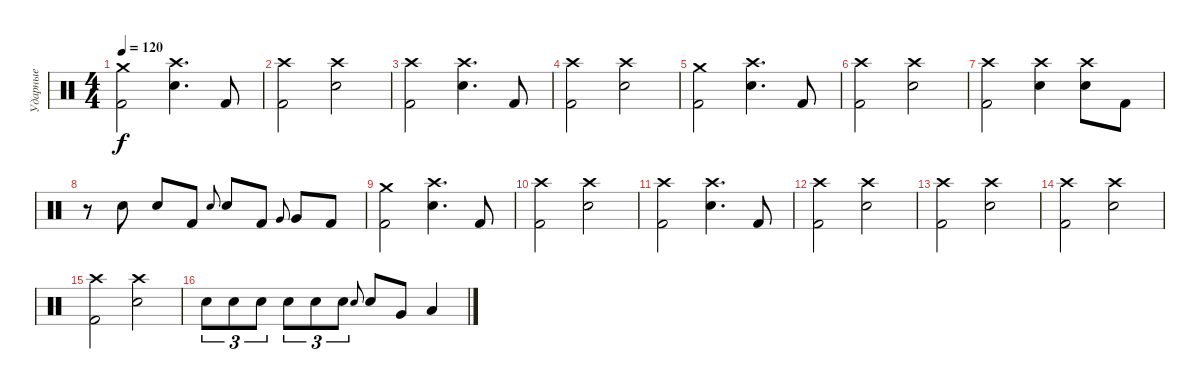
\track ("Ударные" "Ударные") {instrument percussion}
\staff {score}
\articulation defaults
\ts (4 4)
\tempo 120
\clef neutral
\ks c
("Crash medium (hit)" "Kick (hit) 2").2{dy f} ("Crash high (hit)" "Snare (hit) 2").4{d} "Kick (hit) 2".8 |
("Crash high (hit)" "Kick (hit) 2").2 ("Crash high (hit)" "Snare (hit) 2").2 |
("Crash high (hit)" "Kick (hit) 2").2 ("Crash high (hit)" "Snare (hit) 2").4{d} "Kick (hit) 2".8 |
("Crash high (hit)" "Kick (hit) 2").2 ("Crash high (hit)" "Snare (hit) 2").2 |
("Crash medium (hit)" "Kick (hit) 2").2 ("Crash high (hit)" "Snare (hit) 2").4{d} "Kick (hit) 2".8 |
("Crash high (hit)" "Kick (hit) 2").2 ("Crash high (hit)" "Snare (hit) 2").2 |
("Crash high (hit)" "Kick (hit) 2").2 ("Crash high (hit)" "Snare (hit) 2").4 ("Crash high (hit)" "Snare (hit) 2").8 "Kick (hit) 2".8 |
r.8 "Snare (hit) 2".8 "Snare (hit) 2".8 "Kick (hit) 2".8 "Snare (hit) 2".8{gr onbeat} "Snare (hit) 2".8 "Kick (hit) 2".8 "Very Low Tom (hit)".8{gr onbeat} "Very Low Tom (hit)".8 "Kick (hit) 2".8 |
("Crash medium (hit)" "Kick (hit) 2").2 ("Crash high (hit)" "Snare (hit) 2").4{d} "Kick (hit) 2".8 |
("Crash high (hit)" "Kick (hit) 2").2 ("Crash high (hit)" "Snare (hit) 2").2 |
("Crash high (hit)" "Kick (hit) 2").2 ("Crash high (hit)" "Snare (hit) 2").4{d} "Kick (hit) 2".8 |
("Crash high (hit)" "Kick (hit) 2").2 ("Crash high (hit)" "Snare (hit) 2").2 |
("Crash high (hit)" "Kick (hit) 2").2 ("Crash high (hit)" "Snare (hit) 2").2 |
("Crash high (hit)" "Kick (hit) 2").2 ("Crash high (hit)" "Snare (hit) 2").2 |
("Crash high (hit)" "Kick (hit) 2").2 ("Crash high (hit)" "Snare (hit) 2").2 |
"Snare (hit) 2".8{tu (3 2)} "Snare (hit) 2".8{tu (3 2)} "Snare (hit) 2".8{tu (3 2)} "Snare (hit) 2".8{tu (3 2)} "Snare (hit) 2".8{tu (3 2)} "Snare (hit) 2".8{tu (3 2)} "Snare (hit) 2".8{gr onbeat} "Snare (hit) 2".8 "Very Low Tom (hit)".8 "Low Floor Tom (hit)".4
